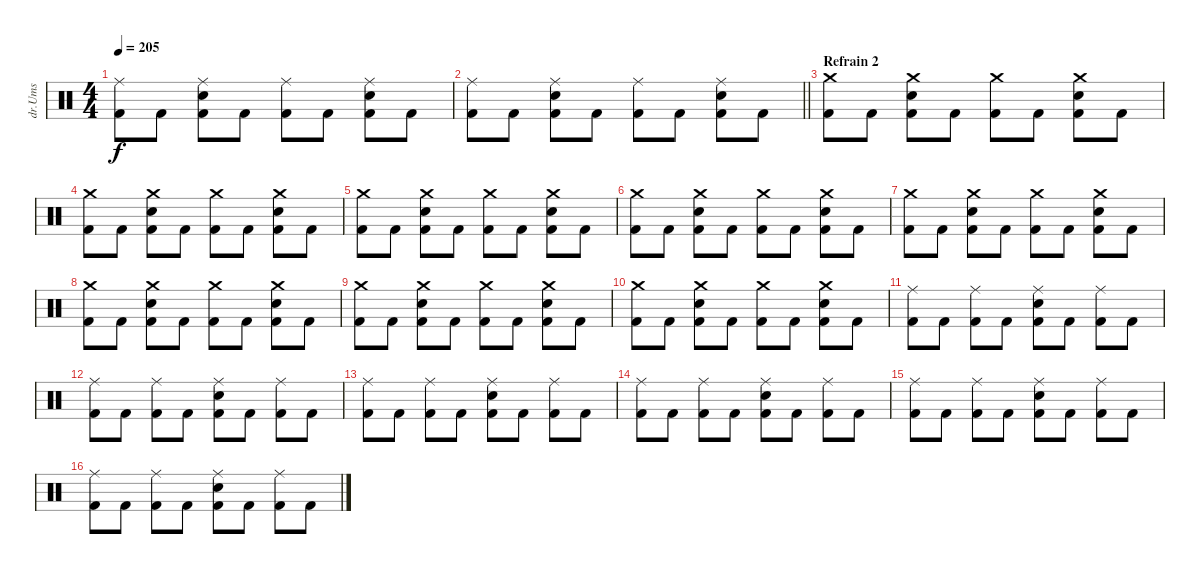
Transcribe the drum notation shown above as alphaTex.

\track ("dr.Ums" "dr.Ums") {instrument percussion}
\staff {score}
\articulation defaults
\ts (4 4)
\tempo 205
\clef neutral
\ks c
("Ride (middle)" "Kick (hit) 2").8{dy f} "Kick (hit) 2".8 ("Ride (middle)" "Snare (hit) 2" "Kick (hit) 2").8 "Kick (hit) 2".8 ("Ride (middle)" "Kick (hit) 2").8 "Kick (hit) 2".8 ("Ride (middle)" "Snare (hit) 2" "Kick (hit) 2").8 "Kick (hit) 2".8 |
\barLineRight lightlight
("Ride (middle)" "Kick (hit) 2").8 "Kick (hit) 2".8 ("Ride (middle)" "Snare (hit) 2" "Kick (hit) 2").8 "Kick (hit) 2".8 ("Ride (middle)" "Kick (hit) 2").8 "Kick (hit) 2".8 ("Ride (middle)" "Snare (hit) 2" "Kick (hit) 2").8 "Kick (hit) 2".8 |
\section ("" "Refrain 2")
("Kick (hit) 2" "Crash medium (hit)").8 "Kick (hit) 2".8 ("Kick (hit) 2" "Crash medium (hit)" "Snare (hit) 2").8 "Kick (hit) 2".8 ("Kick (hit) 2" "Crash medium (hit)").8 "Kick (hit) 2".8 ("Kick (hit) 2" "Crash medium (hit)" "Snare (hit) 2").8 "Kick (hit) 2".8 |
("Kick (hit) 2" "Crash medium (hit)").8 "Kick (hit) 2".8 ("Kick (hit) 2" "Crash medium (hit)" "Snare (hit) 2").8 "Kick (hit) 2".8 ("Kick (hit) 2" "Crash medium (hit)").8 "Kick (hit) 2".8 ("Kick (hit) 2" "Crash medium (hit)" "Snare (hit) 2").8 "Kick (hit) 2".8 |
("Kick (hit) 2" "Crash medium (hit)").8 "Kick (hit) 2".8 ("Kick (hit) 2" "Crash medium (hit)" "Snare (hit) 2").8 "Kick (hit) 2".8 ("Kick (hit) 2" "Crash medium (hit)").8 "Kick (hit) 2".8 ("Kick (hit) 2" "Crash medium (hit)" "Snare (hit) 2").8 "Kick (hit) 2".8 |
("Kick (hit) 2" "Crash medium (hit)").8 "Kick (hit) 2".8 ("Kick (hit) 2" "Crash medium (hit)" "Snare (hit) 2").8 "Kick (hit) 2".8 ("Kick (hit) 2" "Crash medium (hit)").8 "Kick (hit) 2".8 ("Kick (hit) 2" "Crash medium (hit)" "Snare (hit) 2").8 "Kick (hit) 2".8 |
("Kick (hit) 2" "Crash medium (hit)").8 "Kick (hit) 2".8 ("Kick (hit) 2" "Crash medium (hit)" "Snare (hit) 2").8 "Kick (hit) 2".8 ("Kick (hit) 2" "Crash medium (hit)").8 "Kick (hit) 2".8 ("Kick (hit) 2" "Crash medium (hit)" "Snare (hit) 2").8 "Kick (hit) 2".8 |
("Kick (hit) 2" "Crash medium (hit)").8 "Kick (hit) 2".8 ("Kick (hit) 2" "Crash medium (hit)" "Snare (hit) 2").8 "Kick (hit) 2".8 ("Kick (hit) 2" "Crash medium (hit)").8 "Kick (hit) 2".8 ("Kick (hit) 2" "Crash medium (hit)" "Snare (hit) 2").8 "Kick (hit) 2".8 |
("Kick (hit) 2" "Crash medium (hit)").8 "Kick (hit) 2".8 ("Kick (hit) 2" "Crash medium (hit)" "Snare (hit) 2").8 "Kick (hit) 2".8 ("Kick (hit) 2" "Crash medium (hit)").8 "Kick (hit) 2".8 ("Kick (hit) 2" "Crash medium (hit)" "Snare (hit) 2").8 "Kick (hit) 2".8 |
("Kick (hit) 2" "Crash medium (hit)").8 "Kick (hit) 2".8 ("Kick (hit) 2" "Crash medium (hit)" "Snare (hit) 2").8 "Kick (hit) 2".8 ("Kick (hit) 2" "Crash medium (hit)").8 "Kick (hit) 2".8 ("Kick (hit) 2" "Crash medium (hit)" "Snare (hit) 2").8 "Kick (hit) 2".8 |
("Ride (middle)" "Kick (hit) 2").8 "Kick (hit) 2".8 ("Ride (middle)" "Kick (hit) 2").8 "Kick (hit) 2".8 ("Ride (middle)" "Snare (hit) 2" "Kick (hit) 2").8 "Kick (hit) 2".8 ("Ride (middle)" "Kick (hit) 2").8 "Kick (hit) 2".8 |
("Ride (middle)" "Kick (hit) 2").8 "Kick (hit) 2".8 ("Ride (middle)" "Kick (hit) 2").8 "Kick (hit) 2".8 ("Ride (middle)" "Snare (hit) 2" "Kick (hit) 2").8 "Kick (hit) 2".8 ("Ride (middle)" "Kick (hit) 2").8 "Kick (hit) 2".8 |
("Ride (middle)" "Kick (hit) 2").8 "Kick (hit) 2".8 ("Ride (middle)" "Kick (hit) 2").8 "Kick (hit) 2".8 ("Ride (middle)" "Snare (hit) 2" "Kick (hit) 2").8 "Kick (hit) 2".8 ("Ride (middle)" "Kick (hit) 2").8 "Kick (hit) 2".8 |
("Ride (middle)" "Kick (hit) 2").8 "Kick (hit) 2".8 ("Ride (middle)" "Kick (hit) 2").8 "Kick (hit) 2".8 ("Ride (middle)" "Snare (hit) 2" "Kick (hit) 2").8 "Kick (hit) 2".8 ("Ride (middle)" "Kick (hit) 2").8 "Kick (hit) 2".8 |
("Ride (middle)" "Kick (hit) 2").8 "Kick (hit) 2".8 ("Ride (middle)" "Kick (hit) 2").8 "Kick (hit) 2".8 ("Ride (middle)" "Snare (hit) 2" "Kick (hit) 2").8 "Kick (hit) 2".8 ("Ride (middle)" "Kick (hit) 2").8 "Kick (hit) 2".8 |
("Ride (middle)" "Kick (hit) 2").8 "Kick (hit) 2".8 ("Ride (middle)" "Kick (hit) 2").8 "Kick (hit) 2".8 ("Ride (middle)" "Snare (hit) 2" "Kick (hit) 2").8 "Kick (hit) 2".8 ("Ride (middle)" "Kick (hit) 2").8 "Kick (hit) 2".8
